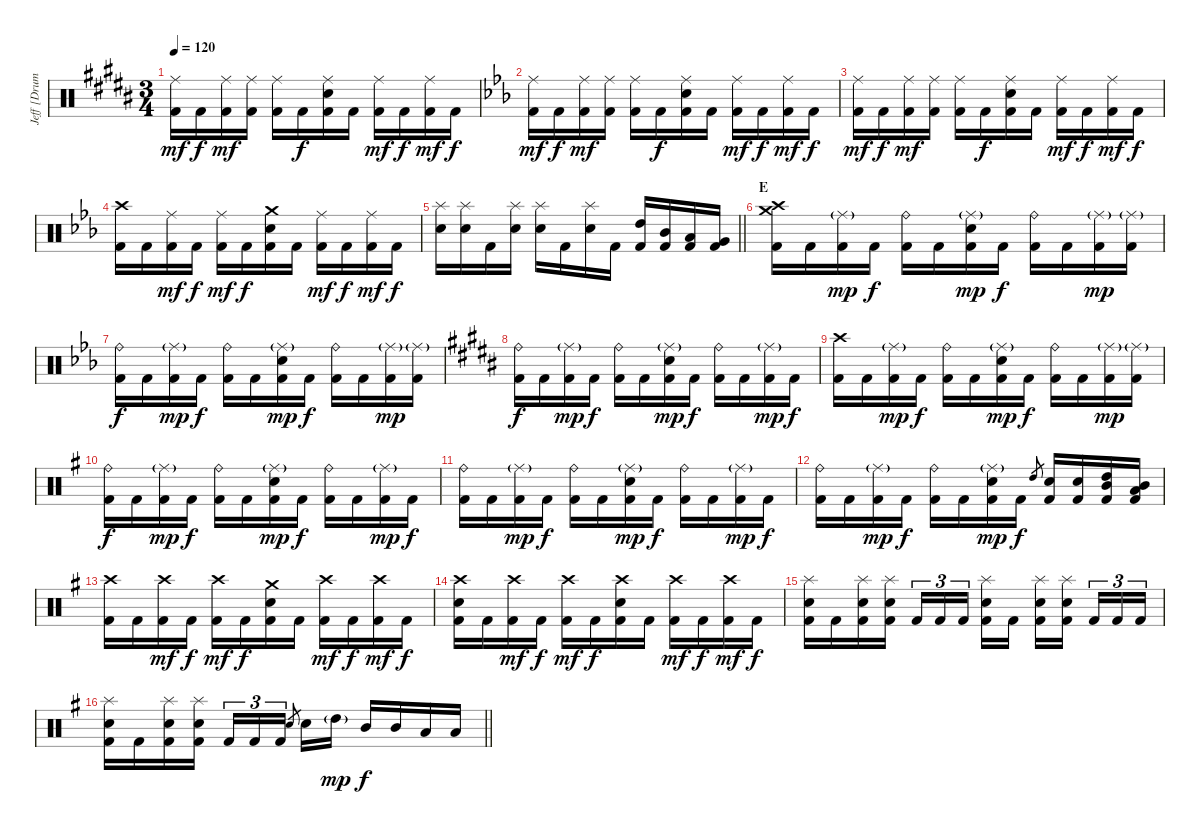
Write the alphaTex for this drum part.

\track ("Jeff [Drums]" "Jeff [Drum") {instrument percussion}
\staff {score}
\articulation defaults
\ts (3 4)
\tempo 120
\clef neutral
\ks b
("Ride (middle)" "Kick (hit) 2").16{dy mf} "Kick (hit) 2".16{dy f} ("Ride (middle)" "Kick (hit) 2").16{dy mf} ("Ride (middle)" "Kick (hit) 2").16 ("Ride (middle)" "Kick (hit) 2").16 "Kick (hit) 2".16{dy f} ("Ride (middle)" "Electric Snare (hit)" "Kick (hit) 2").16 "Kick (hit) 2".16 ("Ride (middle)" "Kick (hit) 2").16{dy mf} "Kick (hit) 2".16{dy f} ("Ride (middle)" "Kick (hit) 2").16{dy mf} "Kick (hit) 2".16{dy f} |
\ks eb
("Ride (middle)" "Kick (hit) 2").16{dy mf} "Kick (hit) 2".16{dy f} ("Ride (middle)" "Kick (hit) 2").16{dy mf} ("Ride (middle)" "Kick (hit) 2").16 ("Ride (middle)" "Kick (hit) 2").16 "Kick (hit) 2".16{dy f} ("Ride (middle)" "Electric Snare (hit)" "Kick (hit) 2").16 "Kick (hit) 2".16 ("Ride (middle)" "Kick (hit) 2").16{dy mf} "Kick (hit) 2".16{dy f} ("Ride (middle)" "Kick (hit) 2").16{dy mf} "Kick (hit) 2".16{dy f} |
("Ride (middle)" "Kick (hit) 2").16{dy mf} "Kick (hit) 2".16{dy f} ("Ride (middle)" "Kick (hit) 2").16{dy mf} ("Ride (middle)" "Kick (hit) 2").16 ("Ride (middle)" "Kick (hit) 2").16 "Kick (hit) 2".16{dy f} ("Ride (middle)" "Electric Snare (hit)" "Kick (hit) 2").16 "Kick (hit) 2".16 ("Ride (middle)" "Kick (hit) 2").16{dy mf} "Kick (hit) 2".16{dy f} ("Ride (middle)" "Kick (hit) 2").16{dy mf} "Kick (hit) 2".16{dy f} |
("Crash high (hit)" "Kick (hit) 2").16 "Kick (hit) 2".16 ("Ride (middle)" "Kick (hit) 2").16{dy mf} "Kick (hit) 2".16{dy f} ("Ride (middle)" "Kick (hit) 2").16{dy mf} "Kick (hit) 2".16{dy f} ("Crash medium (hit)" "Electric Snare (hit)" "Kick (hit) 2").16 "Kick (hit) 2".16 ("Ride (middle)" "Kick (hit) 2").16{dy mf} "Kick (hit) 2".16{dy f} ("Ride (middle)" "Kick (hit) 2").16{dy mf} "Kick (hit) 2".16{dy f} |
\barLineRight lightlight
("Splash (hit)" "Electric Snare (hit)").16 ("Splash (hit)" "Electric Snare (hit)").16 "Kick (hit) 2".16 ("Splash (hit)" "Electric Snare (hit)").16 ("Splash (hit)" "Electric Snare (hit)").16 "Kick (hit) 2".16 ("Splash (hit)" "Electric Snare (hit)").16 "Kick (hit) 2".16 ("High Tom (hit)" "Kick (hit) 2").16 ("Mid Tom (hit)" "Kick (hit) 2").16 ("Low Tom (hit)" "Kick (hit) 2").16 ("Very Low Tom (hit)" "Kick (hit) 2").16 |
\section ("" "E")
("Crash high (hit)" "Crash medium (hit)" "Kick (hit) 2").16 "Kick (hit) 2".16 ("Ride (middle)"{g} "Kick (hit) 2").16{dy mp} "Kick (hit) 2".16{dy f} ("Ride (bell)" "Kick (hit) 2").16 "Kick (hit) 2".16 ("Ride (middle)"{g} "Electric Snare (hit)" "Kick (hit) 2").16{dy mp} "Kick (hit) 2".16{dy f} ("Ride (bell)" "Kick (hit) 2").16 "Kick (hit) 2".16 ("Ride (middle)"{g} "Kick (hit) 2").16{dy mp} ("Ride (middle)"{g} "Kick (hit) 2").16 |
("Ride (bell)" "Kick (hit) 2").16{dy f} "Kick (hit) 2".16 ("Ride (middle)"{g} "Kick (hit) 2").16{dy mp} "Kick (hit) 2".16{dy f} ("Ride (bell)" "Kick (hit) 2").16 "Kick (hit) 2".16 ("Ride (middle)"{g} "Electric Snare (hit)" "Kick (hit) 2").16{dy mp} "Kick (hit) 2".16{dy f} ("Ride (bell)" "Kick (hit) 2").16 "Kick (hit) 2".16 ("Ride (middle)"{g} "Kick (hit) 2").16{dy mp} ("Ride (middle)"{g} "Kick (hit) 2").16 |
\ks b
("Ride (bell)" "Kick (hit) 2").16{dy f} "Kick (hit) 2".16 ("Ride (middle)"{g} "Kick (hit) 2").16{dy mp} "Kick (hit) 2".16{dy f} ("Ride (bell)" "Kick (hit) 2").16 "Kick (hit) 2".16 ("Ride (middle)"{g} "Electric Snare (hit)" "Kick (hit) 2").16{dy mp} "Kick (hit) 2".16{dy f} ("Ride (bell)" "Kick (hit) 2").16 "Kick (hit) 2".16 ("Ride (middle)"{g} "Kick (hit) 2").16{dy mp} "Kick (hit) 2".16{dy f} |
("Crash high (hit)" "Kick (hit) 2").16 "Kick (hit) 2".16 ("Ride (middle)"{g} "Kick (hit) 2").16{dy mp} "Kick (hit) 2".16{dy f} ("Ride (bell)" "Kick (hit) 2").16 "Kick (hit) 2".16 ("Ride (middle)"{g} "Electric Snare (hit)" "Kick (hit) 2").16{dy mp} "Kick (hit) 2".16{dy f} ("Ride (bell)" "Kick (hit) 2").16 "Kick (hit) 2".16 ("Ride (middle)"{g} "Kick (hit) 2").16{dy mp} ("Ride (middle)"{g} "Kick (hit) 2").16 |
\ks g
("Ride (bell)" "Kick (hit) 2").16{dy f} "Kick (hit) 2".16 ("Ride (middle)"{g} "Kick (hit) 2").16{dy mp} "Kick (hit) 2".16{dy f} ("Ride (bell)" "Kick (hit) 2").16 "Kick (hit) 2".16 ("Ride (middle)"{g} "Electric Snare (hit)" "Kick (hit) 2").16{dy mp} "Kick (hit) 2".16{dy f} ("Ride (bell)" "Kick (hit) 2").16 "Kick (hit) 2".16 ("Ride (middle)"{g} "Kick (hit) 2").16{dy mp} "Kick (hit) 2".16{dy f} |
("Ride (bell)" "Kick (hit) 2").16 "Kick (hit) 2".16 ("Ride (middle)"{g} "Kick (hit) 2").16{dy mp} "Kick (hit) 2".16{dy f} ("Ride (bell)" "Kick (hit) 2").16 "Kick (hit) 2".16 ("Ride (middle)"{g} "Electric Snare (hit)" "Kick (hit) 2").16{dy mp} "Kick (hit) 2".16{dy f} ("Ride (bell)" "Kick (hit) 2").16 "Kick (hit) 2".16 ("Ride (middle)"{g} "Kick (hit) 2").16{dy mp} "Kick (hit) 2".16{dy f} |
("Ride (bell)" "Kick (hit) 2").16 "Kick (hit) 2".16 ("Ride (middle)"{g} "Kick (hit) 2").16{dy mp} "Kick (hit) 2".16{dy f} ("Ride (bell)" "Kick (hit) 2").16 "Kick (hit) 2".16 ("Ride (middle)"{g} "Electric Snare (hit)" "Kick (hit) 2").16{dy mp} "Kick (hit) 2".16{dy f} "High Tom (hit)".8{gr} ("Electric Snare (hit)" "Kick (hit) 2").16 ("Electric Snare (hit)" "Kick (hit) 2").16 ("High Tom (hit)" "Mid Tom (hit)" "Kick (hit) 2").16 ("Mid Tom (hit)" "Low Tom (hit)" "Kick (hit) 2").16 |
("Crash high (hit)" "Kick (hit) 2").16 "Kick (hit) 2".16 ("Crash high (hit)" "Kick (hit) 2").16{dy mf} "Kick (hit) 2".16{dy f} ("Crash high (hit)" "Kick (hit) 2").16{dy mf} "Kick (hit) 2".16{dy f} ("Crash medium (hit)" "Electric Snare (hit)" "Kick (hit) 2").16 "Kick (hit) 2".16 ("Crash high (hit)" "Kick (hit) 2").16{dy mf} "Kick (hit) 2".16{dy f} ("Crash high (hit)" "Kick (hit) 2").16{dy mf} "Kick (hit) 2".16{dy f} |
("Crash high (hit)" "Electric Snare (hit)" "Kick (hit) 2").16 "Kick (hit) 2".16 ("Crash high (hit)" "Kick (hit) 2").16{dy mf} "Kick (hit) 2".16{dy f} ("Crash high (hit)" "Kick (hit) 2").16{dy mf} "Kick (hit) 2".16{dy f} ("Crash high (hit)" "Electric Snare (hit)" "Kick (hit) 2").16 "Kick (hit) 2".16 ("Crash high (hit)" "Kick (hit) 2").16{dy mf} "Kick (hit) 2".16{dy f} ("Crash high (hit)" "Kick (hit) 2").16{dy mf} "Kick (hit) 2".16{dy f} |
("Splash (hit)" "Electric Snare (hit)" "Kick (hit) 2").16 "Kick (hit) 2".16 ("Splash (hit)" "Electric Snare (hit)" "Kick (hit) 2").16 ("Splash (hit)" "Electric Snare (hit)" "Kick (hit) 2").16 "Kick (hit) 2".16{tu (3 2)} "Kick (hit) 2".16{tu (3 2)} "Kick (hit) 2".16{tu (3 2) beam splitsecondary} ("Splash (hit)" "Electric Snare (hit)" "Kick (hit) 2").16 "Kick (hit) 2".16 ("Splash (hit)" "Electric Snare (hit)" "Kick (hit) 2").16 ("Splash (hit)" "Electric Snare (hit)" "Kick (hit) 2").16{beam splitsecondary} "Kick (hit) 2".16{tu (3 2)} "Kick (hit) 2".16{tu (3 2)} "Kick (hit) 2".16{tu (3 2)} |
\barLineRight lightlight
("Splash (hit)" "Electric Snare (hit)" "Kick (hit) 2").16 "Kick (hit) 2".16 ("Splash (hit)" "Electric Snare (hit)" "Kick (hit) 2").16 ("Splash (hit)" "Electric Snare (hit)" "Kick (hit) 2").16 "Kick (hit) 2".16{tu (3 2)} "Kick (hit) 2".16{tu (3 2)} "Kick (hit) 2".16{tu (3 2)} "Electric Snare (hit)".8{gr beam splitsecondary} "Electric Snare (hit)".16 "High Tom (hit)"{g}.16{dy mp} "Mid Tom (hit)".16{dy f} "Mid Tom (hit)".16 "Low Tom (hit)".16 "Low Tom (hit)".16
